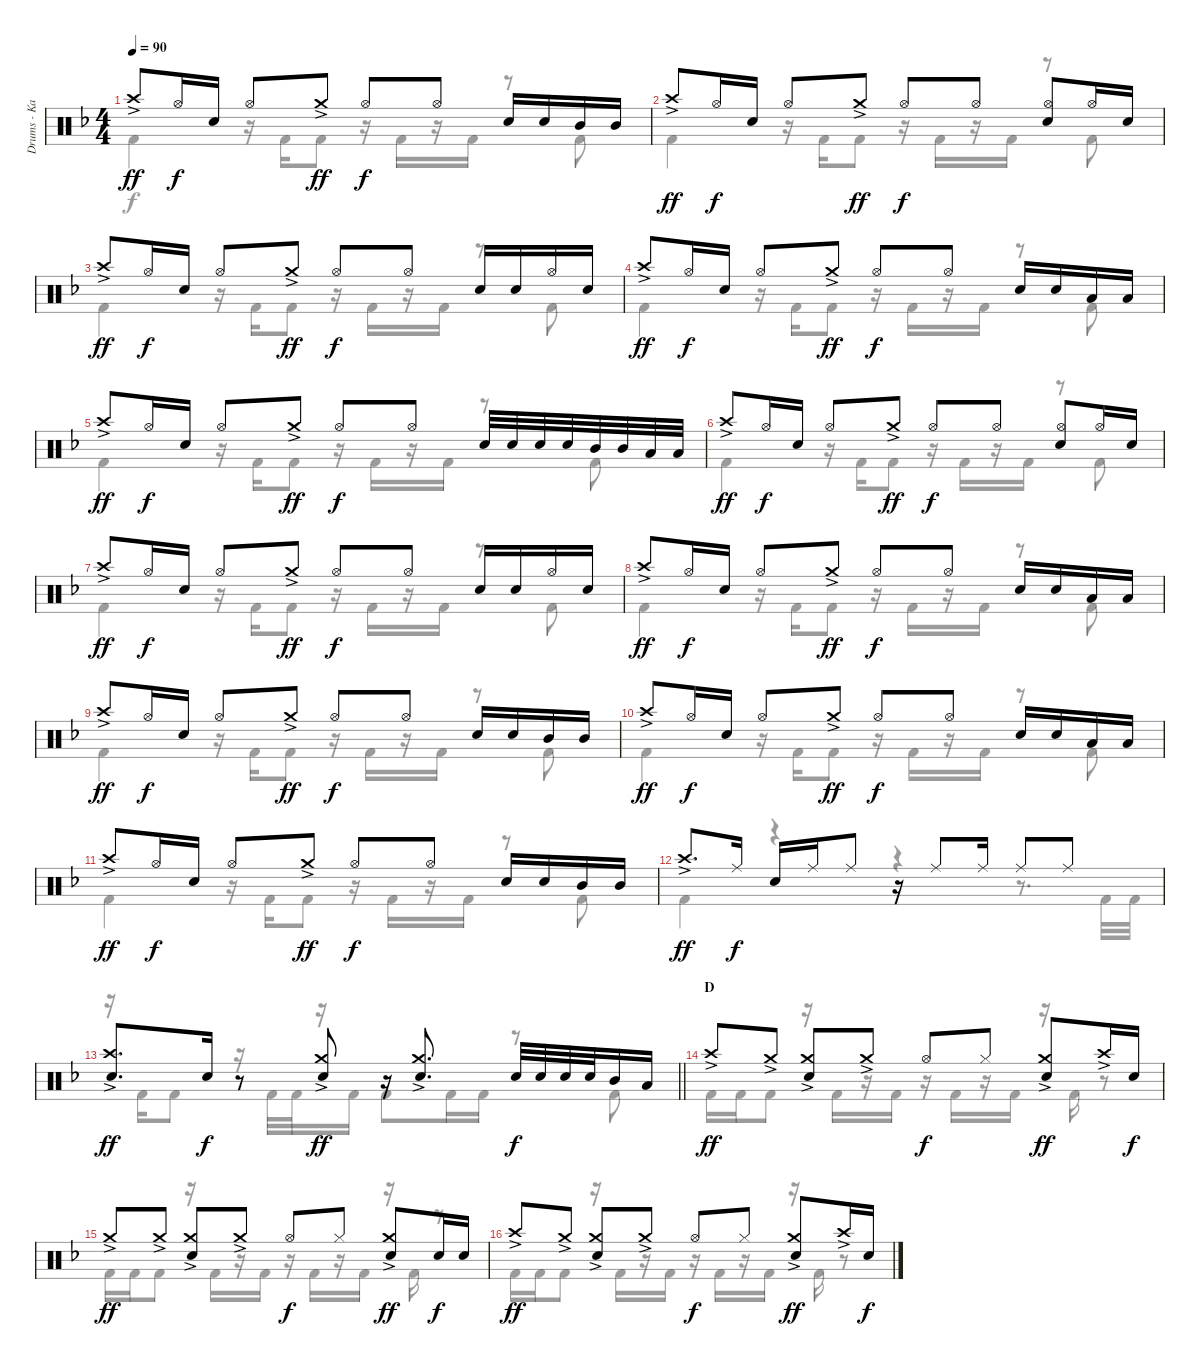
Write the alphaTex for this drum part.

\track ("Drums - Kai" "Drums - Ka") {instrument percussion}
\staff {score}
\articulation defaults
\voice
\ts (4 4)
\tempo 90
\clef neutral
\ks f "Crash high (hit)"{ac}.8{dy ff} "Hi-Hat (open)".16{dy f} "Snare (hit) 2".16 "Hi-Hat (open)".8 "Crash medium (hit)"{ac}.8{dy ff} "Hi-Hat (open)".8{dy f} "Hi-Hat (open)".8 "Snare (hit) 2".16 "Snare (hit) 2".16 "Mid Tom (hit)".16 "Mid Tom (hit)".16
|
"Crash high (hit)"{ac}.8{dy ff} "Hi-Hat (open)".16{dy f} "Snare (hit) 2".16 "Hi-Hat (open)".8 "Crash medium (hit)"{ac}.8{dy ff} "Hi-Hat (open)".8{dy f} "Hi-Hat (open)".8 ("Hi-Hat (open)" "Snare (hit) 2").8 "Hi-Hat (open)".16 "Snare (hit) 2".16 |
"Crash high (hit)"{ac}.8{dy ff} "Hi-Hat (open)".16{dy f} "Snare (hit) 2".16 "Hi-Hat (open)".8 "Crash medium (hit)"{ac}.8{dy ff} "Hi-Hat (open)".8{dy f} "Hi-Hat (open)".8 "Snare (hit) 2".16 "Snare (hit) 2".16 "Hi-Hat (open)".16 "Snare (hit) 2".16 |
"Crash high (hit)"{ac}.8{dy ff} "Hi-Hat (open)".16{dy f} "Snare (hit) 2".16 "Hi-Hat (open)".8 "Crash medium (hit)"{ac}.8{dy ff} "Hi-Hat (open)".8{dy f} "Hi-Hat (open)".8 "Snare (hit) 2".16 "Snare (hit) 2".16 "Low Tom (hit)".16 "Low Tom (hit)".16 |
"Crash high (hit)"{ac}.8{dy ff} "Hi-Hat (open)".16{dy f} "Snare (hit) 2".16 "Hi-Hat (open)".8 "Crash medium (hit)"{ac}.8{dy ff} "Hi-Hat (open)".8{dy f} "Hi-Hat (open)".8 "Snare (hit) 2".32 "Snare (hit) 2".32 "Snare (hit) 2".32 "Snare (hit) 2".32 "Mid Tom (hit)".32 "Mid Tom (hit)".32 "Low Tom (hit)".32 "Low Tom (hit)".32 |
"Crash high (hit)"{ac}.8{dy ff} "Hi-Hat (open)".16{dy f} "Snare (hit) 2".16 "Hi-Hat (open)".8 "Crash medium (hit)"{ac}.8{dy ff} "Hi-Hat (open)".8{dy f} "Hi-Hat (open)".8 ("Hi-Hat (open)" "Snare (hit) 2").8 "Hi-Hat (open)".16 "Snare (hit) 2".16 |
"Crash high (hit)"{ac}.8{dy ff} "Hi-Hat (open)".16{dy f} "Snare (hit) 2".16 "Hi-Hat (open)".8 "Crash medium (hit)"{ac}.8{dy ff} "Hi-Hat (open)".8{dy f} "Hi-Hat (open)".8 "Snare (hit) 2".16 "Snare (hit) 2".16 "Hi-Hat (open)".16 "Snare (hit) 2".16 |
"Crash high (hit)"{ac}.8{dy ff} "Hi-Hat (open)".16{dy f} "Snare (hit) 2".16 "Hi-Hat (open)".8 "Crash medium (hit)"{ac}.8{dy ff} "Hi-Hat (open)".8{dy f} "Hi-Hat (open)".8 "Snare (hit) 2".16 "Snare (hit) 2".16 "Low Tom (hit)".16 "Low Tom (hit)".16 |
"Crash high (hit)"{ac}.8{dy ff} "Hi-Hat (open)".16{dy f} "Snare (hit) 2".16 "Hi-Hat (open)".8 "Crash medium (hit)"{ac}.8{dy ff} "Hi-Hat (open)".8{dy f} "Hi-Hat (open)".8 "Snare (hit) 2".16 "Snare (hit) 2".16 "Mid Tom (hit)".16 "Mid Tom (hit)".16 |
"Crash high (hit)"{ac}.8{dy ff} "Hi-Hat (open)".16{dy f} "Snare (hit) 2".16 "Hi-Hat (open)".8 "Crash medium (hit)"{ac}.8{dy ff} "Hi-Hat (open)".8{dy f} "Hi-Hat (open)".8 "Snare (hit) 2".16 "Snare (hit) 2".16 "Low Tom (hit)".16 "Low Tom (hit)".16 |
"Crash high (hit)"{ac}.8{dy ff} "Hi-Hat (open)".16{dy f} "Snare (hit) 2".16 "Hi-Hat (open)".8 "Crash medium (hit)"{ac}.8{dy ff} "Hi-Hat (open)".8{dy f} "Hi-Hat (open)".8 "Snare (hit) 2".16 "Snare (hit) 2".16 "Mid Tom (hit)".16 "Mid Tom (hit)".16 |
"Crash high (hit)"{ac}.8{d dy ff} "Ride (middle)".16{dy f} "Snare (hit)".16 "Ride (middle)".16 "Ride (middle)".8 r.16 "Ride (middle)".8 "Ride (middle)".16 "Ride (middle)".8 "Ride (middle)".8 |
\barLineRight lightlight
("Crash high (hit)"{ac} "Snare (hit) 2").8{d dy ff} "Snare (hit) 2".16{dy f} r.8 ("Crash medium (hit)"{ac} "Snare (hit) 2").8{dy ff} r.16 ("Crash medium (hit)"{ac} "Snare (hit) 2").8{d} "Snare (hit) 2".32{dy f} "Snare (hit) 2".32 "Snare (hit) 2".32 "Snare (hit) 2".32 "Mid Tom (hit)".16 "Low Tom (hit)".16 |
\section ("" "D")
"Crash high (hit)"{ac}.8{dy ff} "Crash medium (hit)"{ac}.8 ("Crash medium (hit)"{ac} "Snare (hit) 2").8 "Crash medium (hit)"{ac}.8 "Hi-Hat (open)".8{dy f} "Hi-Hat (closed)".8 ("Crash medium (hit)"{ac} "Snare (hit) 2").8{dy ff} "Crash high (hit)"{ac}.16 "Snare (hit) 2".16{dy f} |
"Crash medium (hit)"{ac}.8{dy ff} "Crash medium (hit)"{ac}.8 ("Crash medium (hit)"{ac} "Snare (hit) 2").8 "Crash medium (hit)"{ac}.8 "Hi-Hat (open)".8{dy f} "Hi-Hat (closed)".8 ("Crash medium (hit)"{ac} "Snare (hit) 2").8{dy ff} "Snare (hit) 2".16{dy f} "Snare (hit) 2".16 |
"Crash high (hit)"{ac}.8{dy ff} "Crash medium (hit)"{ac}.8 ("Crash medium (hit)"{ac} "Snare (hit) 2").8 "Crash medium (hit)"{ac}.8 "Hi-Hat (open)".8{dy f} "Hi-Hat (closed)".8 ("Crash medium (hit)"{ac} "Snare (hit) 2").8{dy ff} "Crash high (hit)"{ac}.16 "Snare (hit) 2".16{dy f}
\voice
\clef neutral
\ottava regular
\simile none
\ks f "Kick (hit) 2".4{dy f}
r.16 "Kick (hit) 2".16 "Kick (hit) 2".8 r.16 "Kick (hit) 2".16 r.16 "Kick (hit) 2".16 r.8 "Kick (hit) 2".8 |
"Kick (hit) 2".4 r.16 "Kick (hit) 2".16 "Kick (hit) 2".8 r.16 "Kick (hit) 2".16 r.16 "Kick (hit) 2".16 r.8 "Kick (hit) 2".8 |
"Kick (hit) 2".4 r.16 "Kick (hit) 2".16 "Kick (hit) 2".8 r.16 "Kick (hit) 2".16 r.16 "Kick (hit) 2".16 r.8 "Kick (hit) 2".8 |
"Kick (hit) 2".4 r.16 "Kick (hit) 2".16 "Kick (hit) 2".8 r.16 "Kick (hit) 2".16 r.16 "Kick (hit) 2".16 r.8 "Kick (hit) 2".8 |
"Kick (hit) 2".4 r.16 "Kick (hit) 2".16 "Kick (hit) 2".8 r.16 "Kick (hit) 2".16 r.16 "Kick (hit) 2".16 r.8 "Kick (hit) 2".8 |
"Kick (hit) 2".4 r.16 "Kick (hit) 2".16 "Kick (hit) 2".8 r.16 "Kick (hit) 2".16 r.16 "Kick (hit) 2".16 r.8 "Kick (hit) 2".8 |
"Kick (hit) 2".4 r.16 "Kick (hit) 2".16 "Kick (hit) 2".8 r.16 "Kick (hit) 2".16 r.16 "Kick (hit) 2".16 r.8 "Kick (hit) 2".8 |
"Kick (hit) 2".4 r.16 "Kick (hit) 2".16 "Kick (hit) 2".8 r.16 "Kick (hit) 2".16 r.16 "Kick (hit) 2".16 r.8 "Kick (hit) 2".8 |
"Kick (hit) 2".4 r.16 "Kick (hit) 2".16 "Kick (hit) 2".8 r.16 "Kick (hit) 2".16 r.16 "Kick (hit) 2".16 r.8 "Kick (hit) 2".8 |
"Kick (hit) 2".4 r.16 "Kick (hit) 2".16 "Kick (hit) 2".8 r.16 "Kick (hit) 2".16 r.16 "Kick (hit) 2".16 r.8 "Kick (hit) 2".8 |
"Kick (hit) 2".4 r.16 "Kick (hit) 2".16 "Kick (hit) 2".8 r.16 "Kick (hit) 2".16 r.16 "Kick (hit) 2".16 r.8 "Kick (hit) 2".8 |
"Kick (hit) 2".4 r.4 r.4 r.8{d} "Kick (hit) 2".32 "Kick (hit) 2".32 |
\barLineRight lightlight
r.16 "Kick (hit) 2".16 "Kick (hit) 2".8 r.16 "Kick (hit) 2".32 "Kick (hit) 2".32 r.16 "Kick (hit) 2".16 "Kick (hit) 2".8 "Kick (hit) 2".16 "Kick (hit) 2".16 r.8 "Kick (hit) 2".8 |
"Kick (hit) 2".16 "Kick (hit) 2".16 "Kick (hit) 2".8 r.16 "Kick (hit) 2".16 r.16 "Kick (hit) 2".16 r.16 "Kick (hit) 2".16 r.16 "Kick (hit) 2".16 r.16 "Kick (hit) 2".16 r.8 |
"Kick (hit) 2".16 "Kick (hit) 2".16 "Kick (hit) 2".8 r.16 "Kick (hit) 2".16 r.16 "Kick (hit) 2".16 r.16 "Kick (hit) 2".16 r.16 "Kick (hit) 2".16 r.16 "Kick (hit) 2".16 r.8 |
"Kick (hit) 2".16 "Kick (hit) 2".16 "Kick (hit) 2".8 r.16 "Kick (hit) 2".16 r.16 "Kick (hit) 2".16 r.16 "Kick (hit) 2".16 r.16 "Kick (hit) 2".16 r.16 "Kick (hit) 2".16 r.8
